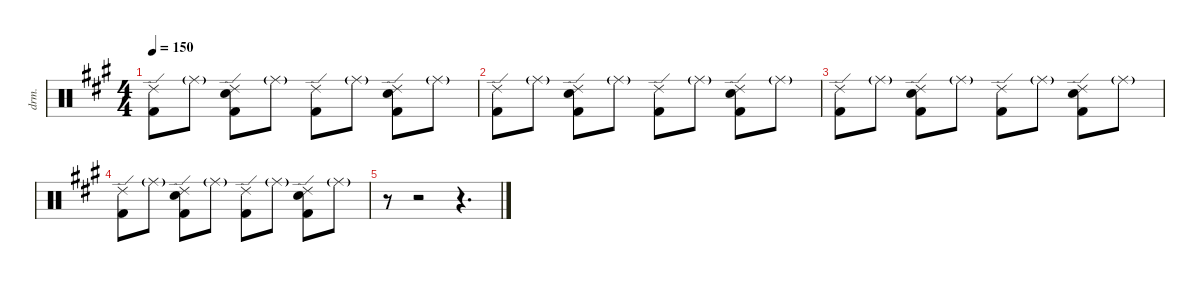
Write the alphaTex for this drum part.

\defaultSystemsLayout 4
\hideDynamics
\bracketExtendMode nobrackets
\otherSystemsTrackNameOrientation horizontal
\track ("Drums" "drm.") {instrument percussion}
\staff {score}
\articulation defaults
\ts (4 4)
\tempo 150
\clef neutral
\ks a
("Kick (hit) 2"{acc forcenatural} "Ride (edge) 2"{acc forcenatural}).8{dy fff} "Ride (middle)"{g acc forcenatural}.8{dy p} ("Kick (hit) 2"{acc forcenatural} "Snare (hit) 2"{acc forcenatural} "Ride (edge) 2"{acc forcenatural}).8{dy fff} "Ride (middle)"{g acc forcenatural}.8{dy p} ("Kick (hit) 2"{acc forcenatural} "Ride (edge) 2"{acc forcenatural}).8{dy fff} "Ride (middle)"{g acc forcenatural}.8{dy p} ("Kick (hit) 2"{acc forcenatural} "Snare (hit) 2"{acc forcenatural} "Ride (edge) 2"{acc forcenatural}).8{dy fff} "Ride (middle)"{g acc forcenatural}.8{dy p} |
("Kick (hit) 2"{acc forcenatural} "Ride (edge) 2"{acc forcenatural}).8{dy fff} "Ride (middle)"{g acc forcenatural}.8{dy p} ("Kick (hit) 2"{acc forcenatural} "Snare (hit) 2"{acc forcenatural} "Ride (edge) 2"{acc forcenatural}).8{dy fff} "Ride (middle)"{g acc forcenatural}.8{dy p} ("Kick (hit) 2"{acc forcenatural} "Ride (edge) 2"{acc forcenatural}).8{dy fff} "Ride (middle)"{g acc forcenatural}.8{dy p} ("Kick (hit) 2"{acc forcenatural} "Snare (hit) 2"{acc forcenatural} "Ride (edge) 2"{acc forcenatural}).8{dy fff} "Ride (middle)"{g acc forcenatural}.8{dy p} |
("Kick (hit) 2"{acc forcenatural} "Ride (edge) 2"{acc forcenatural}).8{dy fff} "Ride (middle)"{g acc forcenatural}.8{dy p} ("Kick (hit) 2"{acc forcenatural} "Snare (hit) 2"{acc forcenatural} "Ride (edge) 2"{acc forcenatural}).8{dy fff} "Ride (middle)"{g acc forcenatural}.8{dy p} ("Kick (hit) 2"{acc forcenatural} "Ride (edge) 2"{acc forcenatural}).8{dy fff} "Ride (middle)"{g acc forcenatural}.8{dy p} ("Kick (hit) 2"{acc forcenatural} "Snare (hit) 2"{acc forcenatural} "Ride (edge) 2"{acc forcenatural}).8{dy fff} "Ride (middle)"{g acc forcenatural}.8{dy p} |
("Kick (hit) 2"{acc forcenatural} "Ride (edge) 2"{acc forcenatural}).8{dy fff} "Ride (middle)"{g acc forcenatural}.8{dy p} ("Kick (hit) 2"{acc forcenatural} "Snare (hit) 2"{acc forcenatural} "Ride (edge) 2"{acc forcenatural}).8{dy fff} "Ride (middle)"{g acc forcenatural}.8{dy p} ("Kick (hit) 2"{acc forcenatural} "Ride (edge) 2"{acc forcenatural}).8{dy fff} "Ride (middle)"{g acc forcenatural}.8{dy p} ("Kick (hit) 2"{acc forcenatural} "Snare (hit) 2"{acc forcenatural} "Ride (edge) 2"{acc forcenatural}).8{dy fff} "Ride (middle)"{g acc forcenatural}.8{dy p} |
r.8 r.2 r.4{d}
